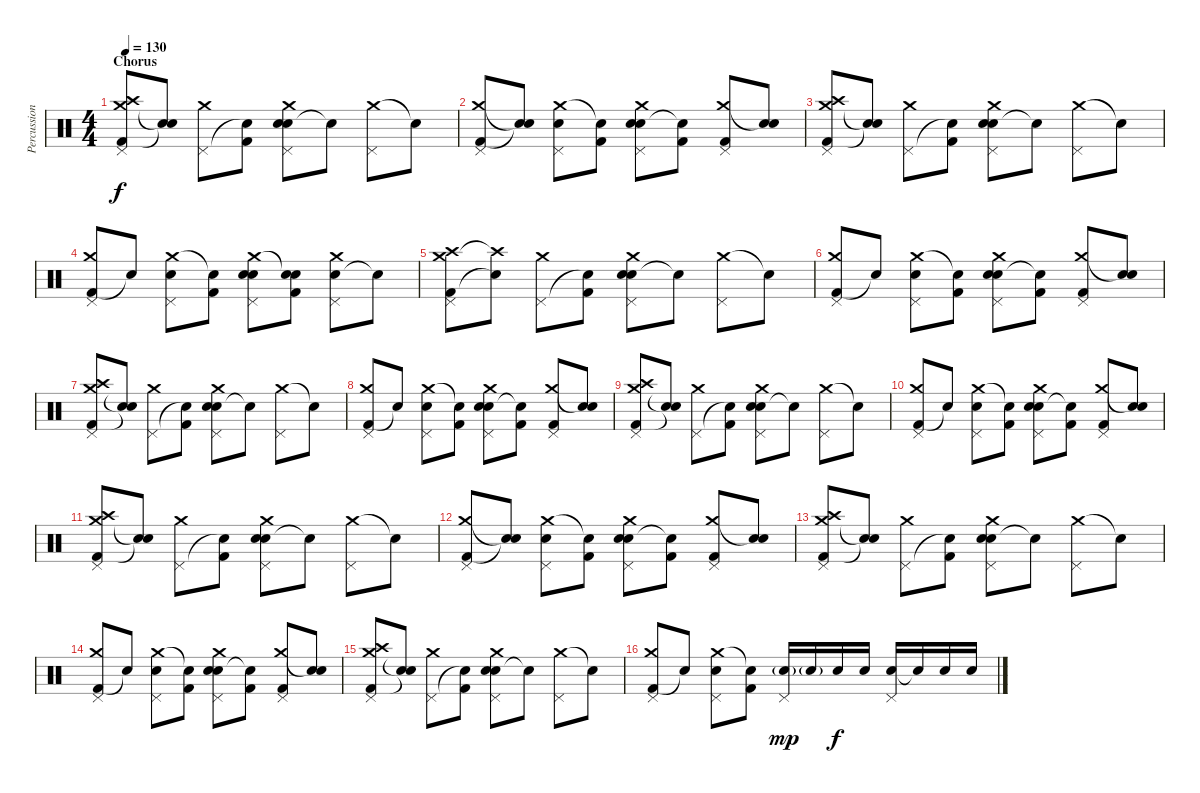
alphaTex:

\track ("Percussion" "Percussion") {instrument percussion}
\staff {score}
\articulation defaults
\ts (4 4)
\section ("" "Chorus")
\tempo 130
\clef neutral
\ks c
("Kick (hit) 2" "Crash medium (hit)" "Crash high (hit)" "Pedal Hi-Hat (hit)").8{dy f} ("Snare (hit)"{t} "Snare (hit)"{t}).8 ("Crash medium (hit)" "Pedal Hi-Hat (hit)").8 ("Kick (hit) 2" "Snare (hit)"{t}).8 ("Electric Snare (hit)" "Electric Snare (hit)" "Crash medium (hit)" "Pedal Hi-Hat (hit)").8 "Snare (hit)"{t}.8 ("Crash medium (hit)" "Pedal Hi-Hat (hit)").8 "Snare (hit)"{t}.8 |
("Kick (hit) 2" "Crash medium (hit)" "Pedal Hi-Hat (hit)").8 ("Snare (hit)"{t} "Snare (hit)"{t}).8 ("Electric Snare (hit)" "Crash medium (hit)" "Pedal Hi-Hat (hit)").8 ("Kick (hit) 2" "Snare (hit)"{t}).8 ("Electric Snare (hit)" "Electric Snare (hit)" "Crash medium (hit)" "Pedal Hi-Hat (hit)").8 ("Kick (hit) 2" "Snare (hit)"{t}).8 ("Kick (hit) 2" "Crash medium (hit)" "Pedal Hi-Hat (hit)").8 ("Electric Snare (hit)" "Snare (hit)"{t}).8 |
("Kick (hit) 2" "Crash medium (hit)" "Crash high (hit)" "Pedal Hi-Hat (hit)").8 ("Snare (hit)"{t} "Snare (hit)"{t}).8 ("Crash medium (hit)" "Pedal Hi-Hat (hit)").8 ("Kick (hit) 2" "Snare (hit)"{t}).8 ("Electric Snare (hit)" "Electric Snare (hit)" "Crash medium (hit)" "Pedal Hi-Hat (hit)").8 "Snare (hit)"{t}.8 ("Crash medium (hit)" "Pedal Hi-Hat (hit)").8 "Snare (hit)"{t}.8 |
("Kick (hit) 2" "Crash medium (hit)" "Pedal Hi-Hat (hit)").8 "Snare (hit)"{t}.8 ("Electric Snare (hit)" "Crash medium (hit)" "Pedal Hi-Hat (hit)").8 ("Kick (hit) 2" "Snare (hit)"{t}).8 ("Electric Snare (hit)" "Electric Snare (hit)" "Crash medium (hit)" "Pedal Hi-Hat (hit)").8 ("Kick (hit) 2" "Electric Snare (hit)" "Snare (hit)"{t}).8 ("Electric Snare (hit)" "Crash medium (hit)" "Pedal Hi-Hat (hit)").8 "Snare (hit)"{t}.8 |
("Kick (hit) 2" "Crash medium (hit)" "Crash high (hit)" "Pedal Hi-Hat (hit)").8 ("Snare (hit)"{t} "Crash high (hit)"{t}).8 ("Crash medium (hit)" "Pedal Hi-Hat (hit)").8 ("Kick (hit) 2" "Snare (hit)"{t}).8 ("Electric Snare (hit)" "Electric Snare (hit)" "Crash medium (hit)" "Pedal Hi-Hat (hit)").8 "Snare (hit)"{t}.8 ("Crash medium (hit)" "Pedal Hi-Hat (hit)").8 "Snare (hit)"{t}.8 |
("Kick (hit) 2" "Crash medium (hit)" "Pedal Hi-Hat (hit)").8 "Snare (hit)"{t}.8 ("Electric Snare (hit)" "Crash medium (hit)" "Pedal Hi-Hat (hit)").8 ("Kick (hit) 2" "Snare (hit)"{t}).8 ("Electric Snare (hit)" "Electric Snare (hit)" "Crash medium (hit)" "Pedal Hi-Hat (hit)").8 ("Kick (hit) 2" "Snare (hit)"{t}).8 ("Kick (hit) 2" "Crash medium (hit)" "Pedal Hi-Hat (hit)").8 ("Electric Snare (hit)" "Snare (hit)"{t}).8 |
("Kick (hit) 2" "Crash medium (hit)" "Crash high (hit)" "Pedal Hi-Hat (hit)").8 ("Snare (hit)"{t} "Snare (hit)"{t}).8 ("Crash medium (hit)" "Pedal Hi-Hat (hit)").8 ("Kick (hit) 2" "Snare (hit)"{t}).8 ("Electric Snare (hit)" "Electric Snare (hit)" "Crash medium (hit)" "Pedal Hi-Hat (hit)").8 "Snare (hit)"{t}.8 ("Crash medium (hit)" "Pedal Hi-Hat (hit)").8 "Snare (hit)"{t}.8 |
("Kick (hit) 2" "Crash medium (hit)" "Pedal Hi-Hat (hit)").8 "Snare (hit)"{t}.8 ("Electric Snare (hit)" "Crash medium (hit)" "Pedal Hi-Hat (hit)").8 ("Kick (hit) 2" "Snare (hit)"{t}).8 ("Electric Snare (hit)" "Electric Snare (hit)" "Crash medium (hit)" "Pedal Hi-Hat (hit)").8 ("Kick (hit) 2" "Snare (hit)"{t}).8 ("Kick (hit) 2" "Crash medium (hit)" "Pedal Hi-Hat (hit)").8 ("Electric Snare (hit)" "Snare (hit)"{t}).8 |
("Kick (hit) 2" "Crash medium (hit)" "Crash high (hit)" "Pedal Hi-Hat (hit)").8 ("Snare (hit)"{t} "Snare (hit)"{t}).8 ("Crash medium (hit)" "Pedal Hi-Hat (hit)").8 ("Kick (hit) 2" "Snare (hit)"{t}).8 ("Electric Snare (hit)" "Electric Snare (hit)" "Crash medium (hit)" "Pedal Hi-Hat (hit)").8 "Snare (hit)"{t}.8 ("Crash medium (hit)" "Pedal Hi-Hat (hit)").8 "Snare (hit)"{t}.8 |
("Kick (hit) 2" "Crash medium (hit)" "Pedal Hi-Hat (hit)").8 "Snare (hit)"{t}.8 ("Electric Snare (hit)" "Crash medium (hit)" "Pedal Hi-Hat (hit)").8 ("Kick (hit) 2" "Snare (hit)"{t}).8 ("Electric Snare (hit)" "Electric Snare (hit)" "Crash medium (hit)" "Pedal Hi-Hat (hit)").8 ("Kick (hit) 2" "Snare (hit)"{t}).8 ("Kick (hit) 2" "Crash medium (hit)" "Pedal Hi-Hat (hit)").8 ("Electric Snare (hit)" "Snare (hit)"{t}).8 |
("Kick (hit) 2" "Crash medium (hit)" "Crash high (hit)" "Pedal Hi-Hat (hit)").8 ("Snare (hit)"{t} "Snare (hit)"{t}).8 ("Crash medium (hit)" "Pedal Hi-Hat (hit)").8 ("Kick (hit) 2" "Snare (hit)"{t}).8 ("Electric Snare (hit)" "Electric Snare (hit)" "Crash medium (hit)" "Pedal Hi-Hat (hit)").8 "Snare (hit)"{t}.8 ("Crash medium (hit)" "Pedal Hi-Hat (hit)").8 "Snare (hit)"{t}.8 |
("Kick (hit) 2" "Crash medium (hit)" "Pedal Hi-Hat (hit)").8 ("Snare (hit)"{t} "Snare (hit)"{t}).8 ("Electric Snare (hit)" "Crash medium (hit)" "Pedal Hi-Hat (hit)").8 ("Kick (hit) 2" "Snare (hit)"{t}).8 ("Electric Snare (hit)" "Electric Snare (hit)" "Crash medium (hit)" "Pedal Hi-Hat (hit)").8 ("Kick (hit) 2" "Snare (hit)"{t}).8 ("Kick (hit) 2" "Crash medium (hit)" "Pedal Hi-Hat (hit)").8 ("Electric Snare (hit)" "Snare (hit)"{t}).8 |
("Kick (hit) 2" "Crash medium (hit)" "Crash high (hit)" "Pedal Hi-Hat (hit)").8 ("Snare (hit)"{t} "Snare (hit)"{t}).8 ("Crash medium (hit)" "Pedal Hi-Hat (hit)").8 ("Kick (hit) 2" "Snare (hit)"{t}).8 ("Electric Snare (hit)" "Electric Snare (hit)" "Crash medium (hit)" "Pedal Hi-Hat (hit)").8 "Snare (hit)"{t}.8 ("Crash medium (hit)" "Pedal Hi-Hat (hit)").8 "Snare (hit)"{t}.8 |
("Kick (hit) 2" "Crash medium (hit)" "Pedal Hi-Hat (hit)").8 "Snare (hit)"{t}.8 ("Electric Snare (hit)" "Crash medium (hit)" "Pedal Hi-Hat (hit)").8 ("Kick (hit) 2" "Snare (hit)"{t}).8 ("Electric Snare (hit)" "Electric Snare (hit)" "Crash medium (hit)" "Pedal Hi-Hat (hit)").8 ("Kick (hit) 2" "Snare (hit)"{t}).8 ("Kick (hit) 2" "Crash medium (hit)" "Pedal Hi-Hat (hit)").8 ("Electric Snare (hit)" "Snare (hit)"{t}).8 |
("Kick (hit) 2" "Crash medium (hit)" "Crash high (hit)" "Pedal Hi-Hat (hit)").8 ("Snare (hit)"{t} "Snare (hit)"{t}).8 ("Crash medium (hit)" "Pedal Hi-Hat (hit)").8 ("Kick (hit) 2" "Snare (hit)"{t}).8 ("Electric Snare (hit)" "Electric Snare (hit)" "Crash medium (hit)" "Pedal Hi-Hat (hit)").8 "Snare (hit)"{t}.8 ("Crash medium (hit)" "Pedal Hi-Hat (hit)").8 "Snare (hit)"{t}.8 |
("Kick (hit) 2" "Crash medium (hit)" "Pedal Hi-Hat (hit)").8 "Snare (hit)"{t}.8 ("Electric Snare (hit)" "Crash medium (hit)" "Pedal Hi-Hat (hit)").8 ("Kick (hit) 2" "Snare (hit)"{t}).8 ("Electric Snare (hit)"{g} "Pedal Hi-Hat (hit)").16{dy mp} "Electric Snare (hit)"{g}.16 "Electric Snare (hit)".16{dy f} "Electric Snare (hit)".16 ("Electric Snare (hit)" "Pedal Hi-Hat (hit)").16 "Snare (hit)"{t}.16 "Electric Snare (hit)".16 "Electric Snare (hit)".16
